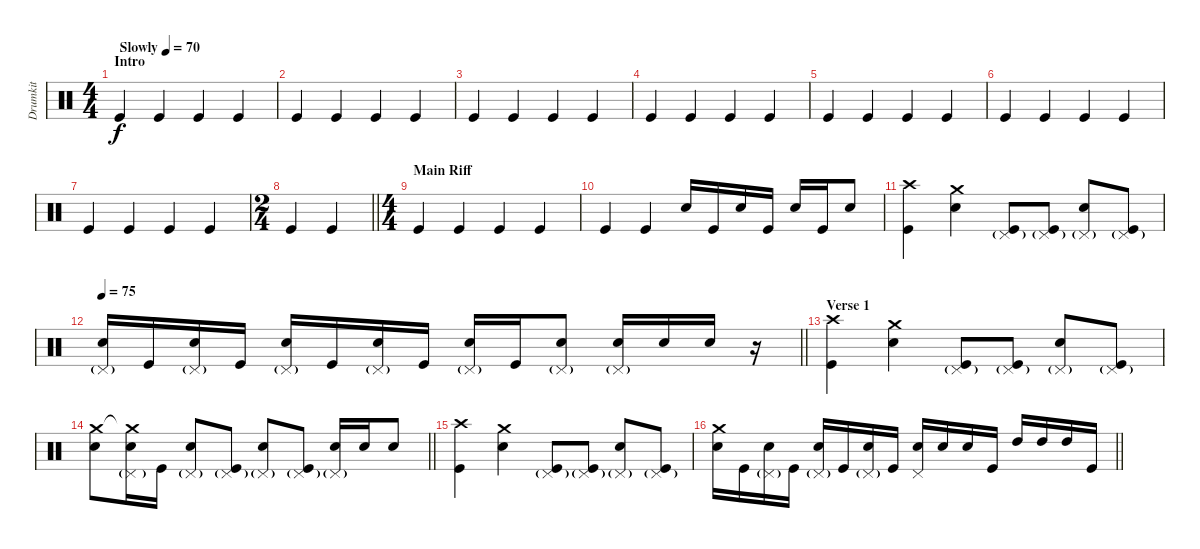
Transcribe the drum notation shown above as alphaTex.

\track ("Drumkit" "Drumkit") {instrument percussion}
\staff {score}
\articulation defaults
\ts (4 4)
\section ("" "Intro")
\tempo (70 "Slowly")
\clef neutral
\ks c "Kick (hit)".4{dy f} "Kick (hit)".4 "Kick (hit)".4 "Kick (hit)".4
|
"Kick (hit)".4 "Kick (hit)".4 "Kick (hit)".4 "Kick (hit)".4 |
"Kick (hit)".4 "Kick (hit)".4 "Kick (hit)".4 "Kick (hit)".4 |
"Kick (hit)".4 "Kick (hit)".4 "Kick (hit)".4 "Kick (hit)".4 |
"Kick (hit)".4 "Kick (hit)".4 "Kick (hit)".4 "Kick (hit)".4 |
"Kick (hit)".4 "Kick (hit)".4 "Kick (hit)".4 "Kick (hit)".4 |
"Kick (hit)".4 "Kick (hit)".4 "Kick (hit)".4 "Kick (hit)".4 |
\ts (2 4)
\barLineRight lightlight "Kick (hit)".4 "Kick (hit)".4
|
\ts (4 4)
\section ("" "Main Riff")
"Kick (hit)".4 "Kick (hit)".4 "Kick (hit)".4 "Kick (hit)".4 |
"Kick (hit)".4 "Kick (hit)".4 "Snare (hit) 2".16 "Kick (hit)".16 "Snare (hit) 2".16 "Kick (hit)".16 "Snare (hit) 2".16 "Kick (hit)".16 "Snare (hit) 2".8 |
("Crash high (hit)" "Kick (hit)").4 ("Crash medium (hit)" "Snare (hit) 2").4 ("Pedal Hi-Hat (hit)"{g} "Kick (hit)").8 ("Pedal Hi-Hat (hit)"{g} "Kick (hit)").8 ("Pedal Hi-Hat (hit)"{g} "Snare (hit) 2").8 ("Pedal Hi-Hat (hit)"{g} "Kick (hit)").8 |
\tempo 75
\barLineRight lightlight
("Pedal Hi-Hat (hit)"{g} "Snare (hit) 2").16 "Kick (hit)".16 ("Pedal Hi-Hat (hit)"{g} "Snare (hit) 2").16 "Kick (hit)".16 ("Pedal Hi-Hat (hit)"{g} "Snare (hit) 2").16 "Kick (hit)".16 ("Pedal Hi-Hat (hit)"{g} "Snare (hit) 2").16 "Kick (hit)".16 ("Pedal Hi-Hat (hit)"{g} "Snare (hit) 2").16 "Kick (hit)".16 ("Pedal Hi-Hat (hit)"{g} "Snare (hit) 2").8 ("Pedal Hi-Hat (hit)"{g} "Snare (hit) 2").16 "Snare (hit) 2".16 "Snare (hit) 2".16 r.16 |
\section ("" "Verse 1")
("Crash high (hit)" "Kick (hit)").4 ("Crash medium (hit)" "Snare (hit) 2").4 ("Pedal Hi-Hat (hit)"{g} "Kick (hit)").8 ("Pedal Hi-Hat (hit)"{g} "Kick (hit)").8 ("Pedal Hi-Hat (hit)"{g} "Snare (hit) 2").8 ("Pedal Hi-Hat (hit)"{g} "Kick (hit)").8 |
\barLineRight lightlight
("Crash medium (hit)" "Snare (hit) 2").8 ("Crash medium (hit)"{t} "Pedal Hi-Hat (hit)"{g} "Snare (hit) 2").16 "Kick (hit)".16 ("Pedal Hi-Hat (hit)"{g} "Snare (hit) 2").8 ("Pedal Hi-Hat (hit)"{g} "Kick (hit)").8 ("Pedal Hi-Hat (hit)"{g} "Snare (hit) 2").8 ("Pedal Hi-Hat (hit)"{g} "Kick (hit)").8 ("Pedal Hi-Hat (hit)"{g} "Snare (hit) 2").16 "Snare (hit) 2".16 "Snare (hit) 2".8 |
("Crash high (hit)" "Kick (hit)").4 ("Crash medium (hit)" "Snare (hit) 2").4 ("Pedal Hi-Hat (hit)"{g} "Kick (hit)").8 ("Pedal Hi-Hat (hit)"{g} "Kick (hit)").8 ("Pedal Hi-Hat (hit)"{g} "Snare (hit) 2").8 ("Pedal Hi-Hat (hit)"{g} "Kick (hit)").8 |
\barLineRight lightlight
("Crash medium (hit)" "Snare (hit) 2").16 "Kick (hit)".16 ("Pedal Hi-Hat (hit)"{g} "Snare (hit) 2").16 "Kick (hit)".16 ("Pedal Hi-Hat (hit)"{g} "Snare (hit) 2").16 "Kick (hit)".16 ("Pedal Hi-Hat (hit)"{g} "Snare (hit) 2").16 "Kick (hit)".16 ("Pedal Hi-Hat (hit)" "Snare (hit) 2").16 "Snare (hit) 2".16 "Snare (hit) 2".16 "Kick (hit)".16 "High Tom (hit)".16 "High Tom (hit)".16 "High Tom (hit)".16 "Kick (hit)".16
